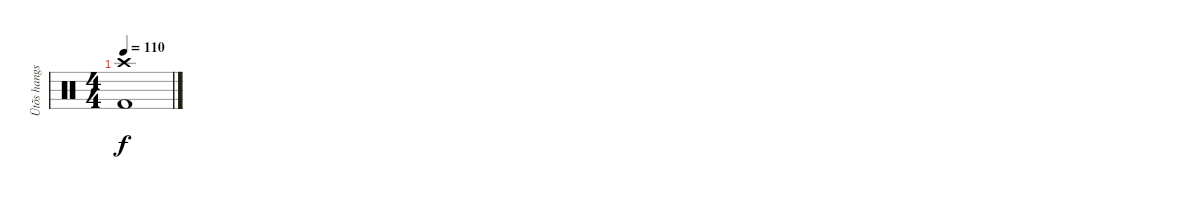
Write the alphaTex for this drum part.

\track ("Ütõs hangszer" "Ütõs hangs") {instrument percussion}
\staff {score}
\articulation defaults
\ts (4 4)
\tempo 110
\clef neutral
\ks c
("Crash high (hit)" "Kick (hit) 2").1{dy f}
